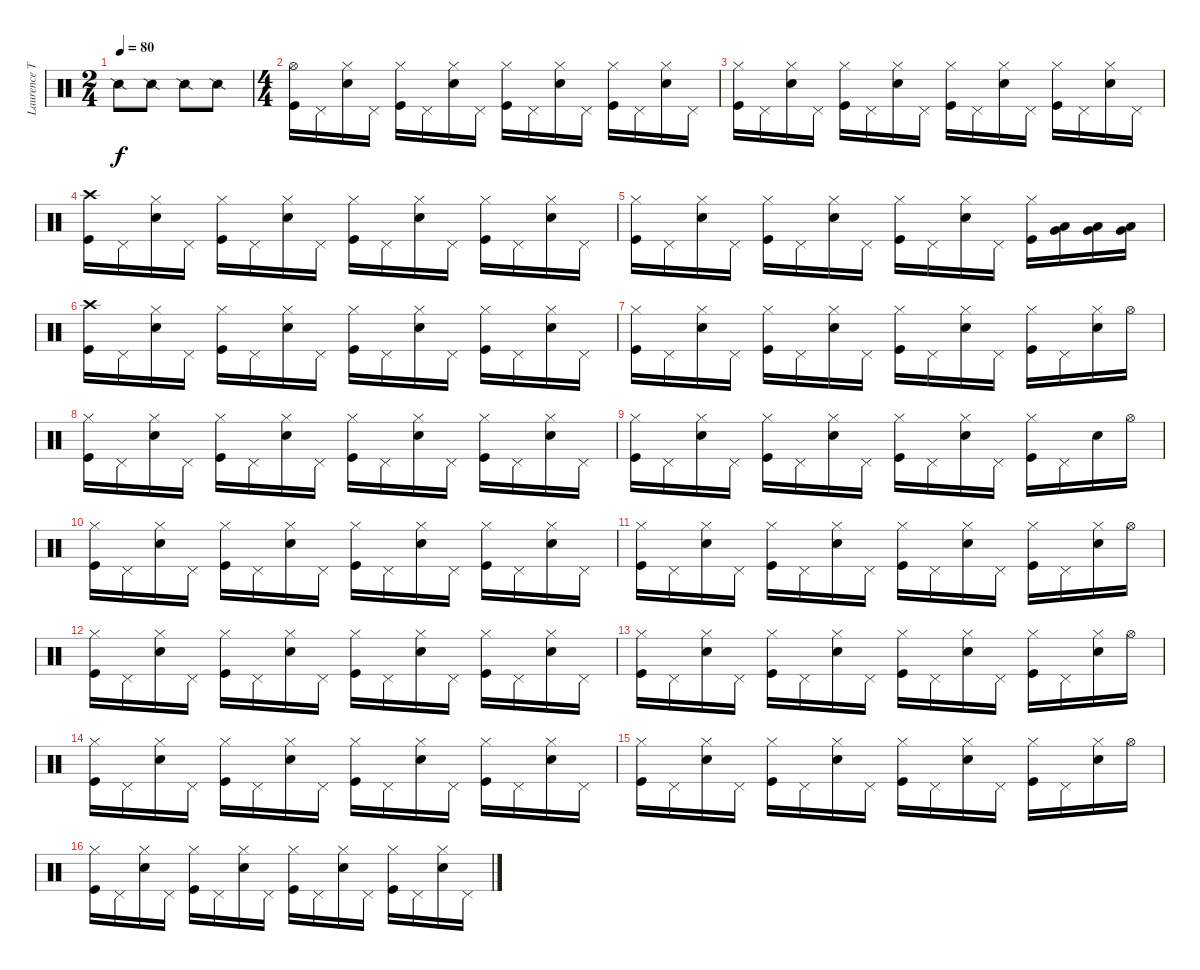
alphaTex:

\track ("Laurence Tolhurst (drums)" "Laurence T") {instrument percussion}
\staff {score}
\articulation defaults
\ts (2 4)
\tempo 80
\clef neutral
\ks c "Snare (side stick) 2".8{dy f} "Snare (side stick) 2".8 "Snare (side stick) 2".8 "Snare (side stick) 2".8
|
\ts (4 4)
("Kick (hit)" "Hi-Hat (open)").16 "Pedal Hi-Hat (hit)".16 ("Snare (hit) 2" "Hi-Hat (closed)").16 "Pedal Hi-Hat (hit)".16 ("Kick (hit)" "Hi-Hat (closed)").16 "Pedal Hi-Hat (hit)".16 ("Snare (hit) 2" "Hi-Hat (closed)").16 "Pedal Hi-Hat (hit)".16 ("Kick (hit)" "Hi-Hat (closed)").16 "Pedal Hi-Hat (hit)".16 ("Snare (hit) 2" "Hi-Hat (closed)").16 "Pedal Hi-Hat (hit)".16 ("Kick (hit)" "Hi-Hat (closed)").16 "Pedal Hi-Hat (hit)".16 ("Snare (hit) 2" "Hi-Hat (closed)").16 "Pedal Hi-Hat (hit)".16 |
("Kick (hit)" "Hi-Hat (closed)").16 "Pedal Hi-Hat (hit)".16 ("Snare (hit) 2" "Hi-Hat (closed)").16 "Pedal Hi-Hat (hit)".16 ("Kick (hit)" "Hi-Hat (closed)").16 "Pedal Hi-Hat (hit)".16 ("Snare (hit) 2" "Hi-Hat (closed)").16 "Pedal Hi-Hat (hit)".16 ("Kick (hit)" "Hi-Hat (closed)").16 "Pedal Hi-Hat (hit)".16 ("Snare (hit) 2" "Hi-Hat (closed)").16 "Pedal Hi-Hat (hit)".16 ("Kick (hit)" "Hi-Hat (closed)").16 "Pedal Hi-Hat (hit)".16 ("Snare (hit) 2" "Hi-Hat (closed)").16 "Pedal Hi-Hat (hit)".16 |
("Kick (hit)" "Crash high (hit)").16 "Pedal Hi-Hat (hit)".16 ("Snare (hit) 2" "Hi-Hat (closed)").16 "Pedal Hi-Hat (hit)".16 ("Kick (hit)" "Hi-Hat (closed)").16 "Pedal Hi-Hat (hit)".16 ("Snare (hit) 2" "Hi-Hat (closed)").16 "Pedal Hi-Hat (hit)".16 ("Kick (hit)" "Hi-Hat (closed)").16 "Pedal Hi-Hat (hit)".16 ("Snare (hit) 2" "Hi-Hat (closed)").16 "Pedal Hi-Hat (hit)".16 ("Kick (hit)" "Hi-Hat (closed)").16 "Pedal Hi-Hat (hit)".16 ("Snare (hit) 2" "Hi-Hat (closed)").16 "Pedal Hi-Hat (hit)".16 |
("Kick (hit)" "Hi-Hat (closed)").16 "Pedal Hi-Hat (hit)".16 ("Snare (hit) 2" "Hi-Hat (closed)").16 "Pedal Hi-Hat (hit)".16 ("Kick (hit)" "Hi-Hat (closed)").16 "Pedal Hi-Hat (hit)".16 ("Snare (hit) 2" "Hi-Hat (closed)").16 "Pedal Hi-Hat (hit)".16 ("Kick (hit)" "Hi-Hat (closed)").16 "Pedal Hi-Hat (hit)".16 ("Snare (hit) 2" "Hi-Hat (closed)").16 "Pedal Hi-Hat (hit)".16 ("Kick (hit)" "Hi-Hat (closed)").16 ("Very Low Tom (hit)" "Low Floor Tom (hit)").16 ("Very Low Tom (hit)" "Low Floor Tom (hit)").16 ("Very Low Tom (hit)" "Low Floor Tom (hit)").16 |
("Kick (hit)" "Crash high (hit)").16 "Pedal Hi-Hat (hit)".16 ("Snare (hit) 2" "Hi-Hat (closed)").16 "Pedal Hi-Hat (hit)".16 ("Kick (hit)" "Hi-Hat (closed)").16 "Pedal Hi-Hat (hit)".16 ("Snare (hit) 2" "Hi-Hat (closed)").16 "Pedal Hi-Hat (hit)".16 ("Kick (hit)" "Hi-Hat (closed)").16 "Pedal Hi-Hat (hit)".16 ("Snare (hit) 2" "Hi-Hat (closed)").16 "Pedal Hi-Hat (hit)".16 ("Kick (hit)" "Hi-Hat (closed)").16 "Pedal Hi-Hat (hit)".16 ("Snare (hit) 2" "Hi-Hat (closed)").16 "Pedal Hi-Hat (hit)".16 |
("Kick (hit)" "Hi-Hat (closed)").16 "Pedal Hi-Hat (hit)".16 ("Snare (hit) 2" "Hi-Hat (closed)").16 "Pedal Hi-Hat (hit)".16 ("Kick (hit)" "Hi-Hat (closed)").16 "Pedal Hi-Hat (hit)".16 ("Snare (hit) 2" "Hi-Hat (closed)").16 "Pedal Hi-Hat (hit)".16 ("Kick (hit)" "Hi-Hat (closed)").16 "Pedal Hi-Hat (hit)".16 ("Snare (hit) 2" "Hi-Hat (closed)").16 "Pedal Hi-Hat (hit)".16 ("Kick (hit)" "Hi-Hat (closed)").16 "Pedal Hi-Hat (hit)".16 ("Snare (hit) 2" "Hi-Hat (closed)").16 "Hi-Hat (open)".16 |
("Kick (hit)" "Hi-Hat (closed)").16 "Pedal Hi-Hat (hit)".16 ("Snare (hit) 2" "Hi-Hat (closed)").16 "Pedal Hi-Hat (hit)".16 ("Kick (hit)" "Hi-Hat (closed)").16 "Pedal Hi-Hat (hit)".16 ("Snare (hit) 2" "Hi-Hat (closed)").16 "Pedal Hi-Hat (hit)".16 ("Kick (hit)" "Hi-Hat (closed)").16 "Pedal Hi-Hat (hit)".16 ("Snare (hit) 2" "Hi-Hat (closed)").16 "Pedal Hi-Hat (hit)".16 ("Kick (hit)" "Hi-Hat (closed)").16 "Pedal Hi-Hat (hit)".16 ("Snare (hit) 2" "Hi-Hat (closed)").16 "Pedal Hi-Hat (hit)".16 |
("Kick (hit)" "Hi-Hat (closed)").16 "Pedal Hi-Hat (hit)".16 ("Snare (hit) 2" "Hi-Hat (closed)").16 "Pedal Hi-Hat (hit)".16 ("Kick (hit)" "Hi-Hat (closed)").16 "Pedal Hi-Hat (hit)".16 ("Snare (hit) 2" "Hi-Hat (closed)").16 "Pedal Hi-Hat (hit)".16 ("Kick (hit)" "Hi-Hat (closed)").16 "Pedal Hi-Hat (hit)".16 ("Snare (hit) 2" "Hi-Hat (closed)").16 "Pedal Hi-Hat (hit)".16 ("Kick (hit)" "Hi-Hat (closed)").16 "Pedal Hi-Hat (hit)".16 "Snare (hit) 2".16 "Hi-Hat (open)".16 |
("Kick (hit)" "Hi-Hat (closed)").16 "Pedal Hi-Hat (hit)".16 ("Snare (hit) 2" "Hi-Hat (closed)").16 "Pedal Hi-Hat (hit)".16 ("Kick (hit)" "Hi-Hat (closed)").16 "Pedal Hi-Hat (hit)".16 ("Snare (hit) 2" "Hi-Hat (closed)").16 "Pedal Hi-Hat (hit)".16 ("Kick (hit)" "Hi-Hat (closed)").16 "Pedal Hi-Hat (hit)".16 ("Snare (hit) 2" "Hi-Hat (closed)").16 "Pedal Hi-Hat (hit)".16 ("Kick (hit)" "Hi-Hat (closed)").16 "Pedal Hi-Hat (hit)".16 ("Snare (hit) 2" "Hi-Hat (closed)").16 "Pedal Hi-Hat (hit)".16 |
("Kick (hit)" "Hi-Hat (closed)").16 "Pedal Hi-Hat (hit)".16 ("Snare (hit) 2" "Hi-Hat (closed)").16 "Pedal Hi-Hat (hit)".16 ("Kick (hit)" "Hi-Hat (closed)").16 "Pedal Hi-Hat (hit)".16 ("Snare (hit) 2" "Hi-Hat (closed)").16 "Pedal Hi-Hat (hit)".16 ("Kick (hit)" "Hi-Hat (closed)").16 "Pedal Hi-Hat (hit)".16 ("Snare (hit) 2" "Hi-Hat (closed)").16 "Pedal Hi-Hat (hit)".16 ("Kick (hit)" "Hi-Hat (closed)").16 "Pedal Hi-Hat (hit)".16 ("Snare (hit) 2" "Hi-Hat (closed)").16 "Hi-Hat (open)".16 |
("Kick (hit)" "Hi-Hat (closed)").16 "Pedal Hi-Hat (hit)".16 ("Snare (hit) 2" "Hi-Hat (closed)").16 "Pedal Hi-Hat (hit)".16 ("Kick (hit)" "Hi-Hat (closed)").16 "Pedal Hi-Hat (hit)".16 ("Snare (hit) 2" "Hi-Hat (closed)").16 "Pedal Hi-Hat (hit)".16 ("Kick (hit)" "Hi-Hat (closed)").16 "Pedal Hi-Hat (hit)".16 ("Snare (hit) 2" "Hi-Hat (closed)").16 "Pedal Hi-Hat (hit)".16 ("Kick (hit)" "Hi-Hat (closed)").16 "Pedal Hi-Hat (hit)".16 ("Snare (hit) 2" "Hi-Hat (closed)").16 "Pedal Hi-Hat (hit)".16 |
("Kick (hit)" "Hi-Hat (closed)").16 "Pedal Hi-Hat (hit)".16 ("Snare (hit) 2" "Hi-Hat (closed)").16 "Pedal Hi-Hat (hit)".16 ("Kick (hit)" "Hi-Hat (closed)").16 "Pedal Hi-Hat (hit)".16 ("Snare (hit) 2" "Hi-Hat (closed)").16 "Pedal Hi-Hat (hit)".16 ("Kick (hit)" "Hi-Hat (closed)").16 "Pedal Hi-Hat (hit)".16 ("Snare (hit) 2" "Hi-Hat (closed)").16 "Pedal Hi-Hat (hit)".16 ("Kick (hit)" "Hi-Hat (closed)").16 "Pedal Hi-Hat (hit)".16 ("Snare (hit) 2" "Hi-Hat (closed)").16 "Hi-Hat (open)".16 |
("Kick (hit)" "Hi-Hat (closed)").16 "Pedal Hi-Hat (hit)".16 ("Snare (hit) 2" "Hi-Hat (closed)").16 "Pedal Hi-Hat (hit)".16 ("Kick (hit)" "Hi-Hat (closed)").16 "Pedal Hi-Hat (hit)".16 ("Snare (hit) 2" "Hi-Hat (closed)").16 "Pedal Hi-Hat (hit)".16 ("Kick (hit)" "Hi-Hat (closed)").16 "Pedal Hi-Hat (hit)".16 ("Snare (hit) 2" "Hi-Hat (closed)").16 "Pedal Hi-Hat (hit)".16 ("Kick (hit)" "Hi-Hat (closed)").16 "Pedal Hi-Hat (hit)".16 ("Snare (hit) 2" "Hi-Hat (closed)").16 "Pedal Hi-Hat (hit)".16 |
("Kick (hit)" "Hi-Hat (closed)").16 "Pedal Hi-Hat (hit)".16 ("Snare (hit) 2" "Hi-Hat (closed)").16 "Pedal Hi-Hat (hit)".16 ("Kick (hit)" "Hi-Hat (closed)").16 "Pedal Hi-Hat (hit)".16 ("Snare (hit) 2" "Hi-Hat (closed)").16 "Pedal Hi-Hat (hit)".16 ("Kick (hit)" "Hi-Hat (closed)").16 "Pedal Hi-Hat (hit)".16 ("Snare (hit) 2" "Hi-Hat (closed)").16 "Pedal Hi-Hat (hit)".16 ("Kick (hit)" "Hi-Hat (closed)").16 "Pedal Hi-Hat (hit)".16 ("Snare (hit) 2" "Hi-Hat (closed)").16 "Hi-Hat (open)".16 |
("Kick (hit)" "Hi-Hat (closed)").16 "Pedal Hi-Hat (hit)".16 ("Snare (hit) 2" "Hi-Hat (closed)").16 "Pedal Hi-Hat (hit)".16 ("Kick (hit)" "Hi-Hat (closed)").16 "Pedal Hi-Hat (hit)".16 ("Snare (hit) 2" "Hi-Hat (closed)").16 "Pedal Hi-Hat (hit)".16 ("Kick (hit)" "Hi-Hat (closed)").16 "Pedal Hi-Hat (hit)".16 ("Snare (hit) 2" "Hi-Hat (closed)").16 "Pedal Hi-Hat (hit)".16 ("Kick (hit)" "Hi-Hat (closed)").16 "Pedal Hi-Hat (hit)".16 ("Snare (hit) 2" "Hi-Hat (closed)").16 "Pedal Hi-Hat (hit)".16
